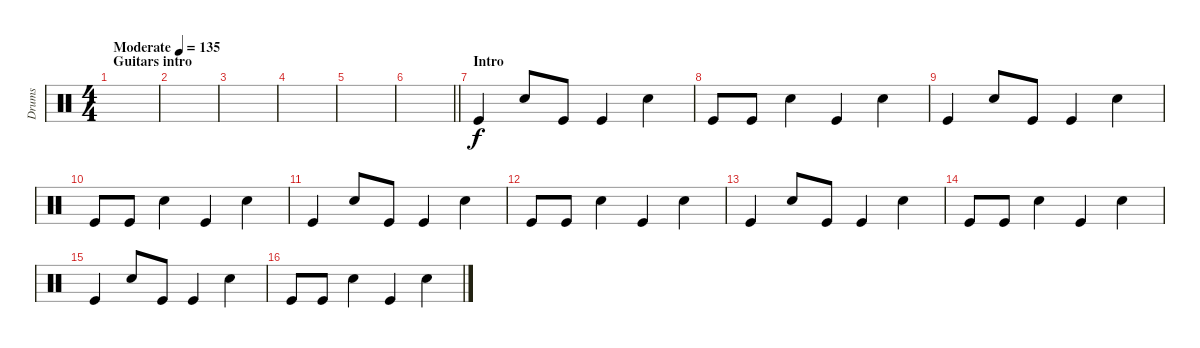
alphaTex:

\track ("Drums" "Drums") {instrument percussion}
\staff {score}
\articulation defaults
\ts (4 4)
\section ("" "Guitars intro")
\tempo (135 "Moderate")
\clef neutral
\ks c
|
|
|
|
|
\barLineRight lightlight
|
\section ("" "Intro")
"Kick (hit)".4 "Snare (hit) 2".8 "Kick (hit)".8 "Kick (hit)".4 "Snare (hit) 2".4 |
"Kick (hit)".8 "Kick (hit)".8 "Snare (hit) 2".4 "Kick (hit)".4 "Snare (hit) 2".4 |
"Kick (hit)".4 "Snare (hit) 2".8 "Kick (hit)".8 "Kick (hit)".4 "Snare (hit) 2".4 |
"Kick (hit)".8 "Kick (hit)".8 "Snare (hit) 2".4 "Kick (hit)".4 "Snare (hit) 2".4 |
"Kick (hit)".4 "Snare (hit) 2".8 "Kick (hit)".8 "Kick (hit)".4 "Snare (hit) 2".4 |
"Kick (hit)".8 "Kick (hit)".8 "Snare (hit) 2".4 "Kick (hit)".4 "Snare (hit) 2".4 |
"Kick (hit)".4 "Snare (hit) 2".8 "Kick (hit)".8 "Kick (hit)".4 "Snare (hit) 2".4 |
"Kick (hit)".8 "Kick (hit)".8 "Snare (hit) 2".4 "Kick (hit)".4 "Snare (hit) 2".4 |
"Kick (hit)".4 "Snare (hit) 2".8 "Kick (hit)".8 "Kick (hit)".4 "Snare (hit) 2".4 |
"Kick (hit)".8 "Kick (hit)".8 "Snare (hit) 2".4 "Kick (hit)".4 "Snare (hit) 2".4
